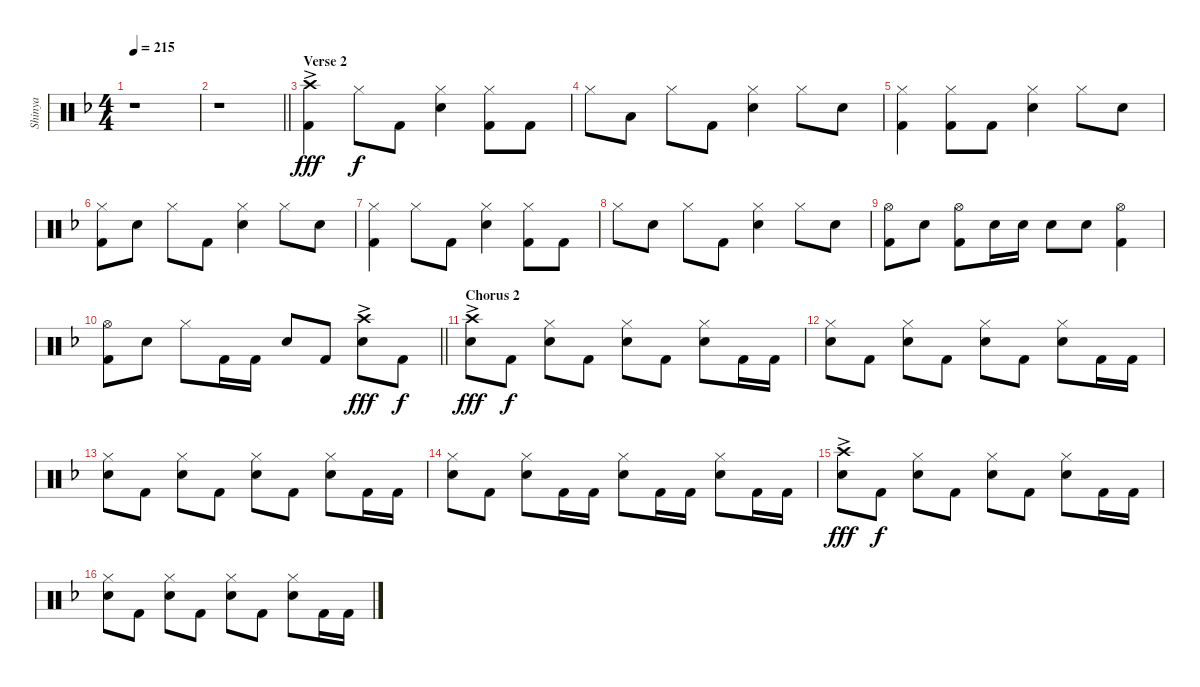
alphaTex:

\track ("Shinya" "Shinya") {instrument percussion}
\staff {score}
\articulation defaults
\ts (4 4)
\tempo 215
\clef neutral
\ks f
r.1{dy f} |
\barLineRight lightlight
r.1 |
\section ("" "Verse 2")
("Crash high (hit)"{ac} "Kick (hit) 2").4{dy fff} "Hi-Hat (closed)".8{dy f} "Kick (hit) 2".8 ("Hi-Hat (closed)" "Snare (hit) 2").4 ("Hi-Hat (closed)" "Kick (hit) 2").8 "Kick (hit) 2".8 |
"Hi-Hat (closed)".8 "Low Tom (hit)".8 "Hi-Hat (closed)".8 "Kick (hit) 2".8 ("Hi-Hat (closed)" "Snare (hit) 2").4 "Hi-Hat (closed)".8 "Snare (hit) 2".8 |
("Hi-Hat (closed)" "Kick (hit) 2").4 ("Hi-Hat (closed)" "Kick (hit) 2").8 "Kick (hit) 2".8 ("Hi-Hat (closed)" "Snare (hit) 2").4 "Hi-Hat (closed)".8 "Snare (hit) 2".8 |
("Hi-Hat (closed)" "Kick (hit) 2").8 "Snare (hit) 2".8 "Hi-Hat (closed)".8 "Kick (hit) 2".8 ("Hi-Hat (closed)" "Snare (hit) 2").4 "Hi-Hat (closed)".8 "Snare (hit) 2".8 |
("Hi-Hat (closed)" "Kick (hit) 2").4 "Hi-Hat (closed)".8 "Kick (hit) 2".8 ("Hi-Hat (closed)" "Snare (hit) 2").4 ("Hi-Hat (closed)" "Kick (hit) 2").8 "Kick (hit) 2".8 |
"Hi-Hat (closed)".8 "Snare (hit) 2".8 "Hi-Hat (closed)".8 "Kick (hit) 2".8 ("Hi-Hat (closed)" "Snare (hit) 2").4 "Hi-Hat (closed)".8 "Snare (hit) 2".8 |
("Hi-Hat (open)" "Kick (hit) 2").8 "Snare (hit) 2".8 ("Hi-Hat (open)" "Kick (hit) 2").8 "Snare (hit) 2".16 "Snare (hit) 2".16 "Snare (hit) 2".8 "Snare (hit) 2".8 ("Hi-Hat (open)" "Kick (hit) 2").4 |
\barLineRight lightlight
("Hi-Hat (open)" "Kick (hit) 2").8 "Snare (hit) 2".8 "Hi-Hat (closed)".8 "Kick (hit) 2".16 "Kick (hit) 2".16 "Snare (hit) 2".8 "Kick (hit) 2".8 ("Crash high (hit)"{ac} "Snare (hit) 2").8{dy fff} "Kick (hit) 2".8{dy f} |
\section ("" "Chorus 2")
("Crash high (hit)"{ac} "Snare (hit) 2").8{dy fff} "Kick (hit) 2".8{dy f} ("Hi-Hat (closed)" "Snare (hit) 2").8 "Kick (hit) 2".8 ("Hi-Hat (closed)" "Snare (hit) 2").8 "Kick (hit) 2".8 ("Hi-Hat (closed)" "Snare (hit) 2").8 "Kick (hit) 2".16 "Kick (hit) 2".16 |
("Hi-Hat (closed)" "Snare (hit) 2").8 "Kick (hit) 2".8 ("Hi-Hat (closed)" "Snare (hit) 2").8 "Kick (hit) 2".8 ("Hi-Hat (closed)" "Snare (hit) 2").8 "Kick (hit) 2".8 ("Hi-Hat (closed)" "Snare (hit) 2").8 "Kick (hit) 2".16 "Kick (hit) 2".16 |
("Hi-Hat (closed)" "Snare (hit) 2").8 "Kick (hit) 2".8 ("Hi-Hat (closed)" "Snare (hit) 2").8 "Kick (hit) 2".8 ("Hi-Hat (closed)" "Snare (hit) 2").8 "Kick (hit) 2".8 ("Hi-Hat (closed)" "Snare (hit) 2").8 "Kick (hit) 2".16 "Kick (hit) 2".16 |
("Hi-Hat (closed)" "Snare (hit) 2").8 "Kick (hit) 2".8 ("Hi-Hat (closed)" "Snare (hit) 2").8 "Kick (hit) 2".16 "Kick (hit) 2".16 ("Hi-Hat (closed)" "Snare (hit) 2").8 "Kick (hit) 2".16 "Kick (hit) 2".16 ("Hi-Hat (closed)" "Snare (hit) 2").8 "Kick (hit) 2".16 "Kick (hit) 2".16 |
("Crash high (hit)"{ac} "Snare (hit) 2").8{dy fff} "Kick (hit) 2".8{dy f} ("Hi-Hat (closed)" "Snare (hit) 2").8 "Kick (hit) 2".8 ("Hi-Hat (closed)" "Snare (hit) 2").8 "Kick (hit) 2".8 ("Hi-Hat (closed)" "Snare (hit) 2").8 "Kick (hit) 2".16 "Kick (hit) 2".16 |
("Hi-Hat (closed)" "Snare (hit) 2").8 "Kick (hit) 2".8 ("Hi-Hat (closed)" "Snare (hit) 2").8 "Kick (hit) 2".8 ("Hi-Hat (closed)" "Snare (hit) 2").8 "Kick (hit) 2".8 ("Hi-Hat (closed)" "Snare (hit) 2").8 "Kick (hit) 2".16 "Kick (hit) 2".16
